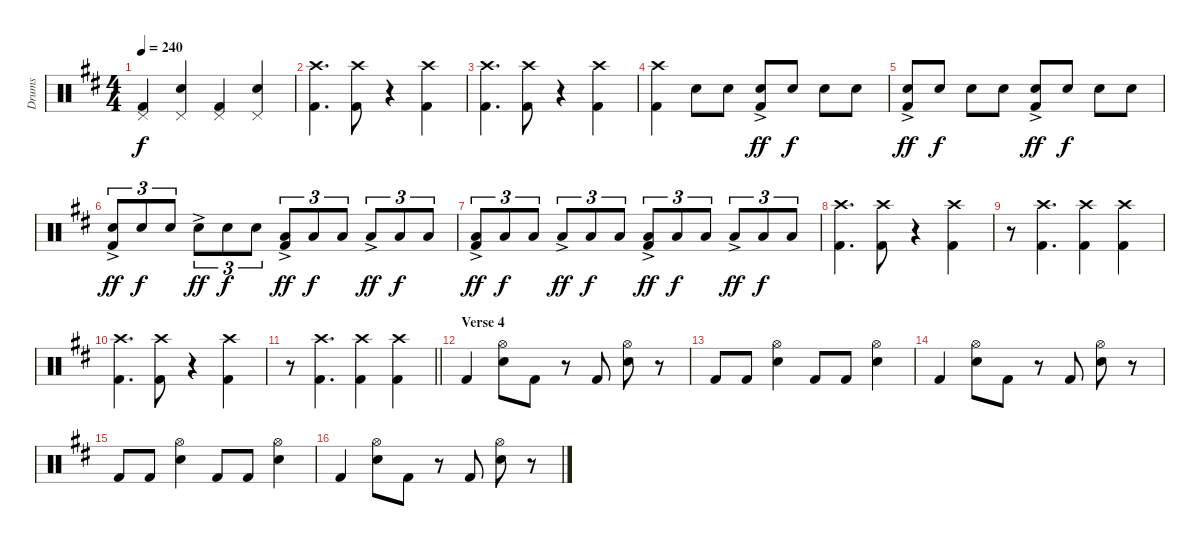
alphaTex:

\track ("Drums" "Drums") {instrument percussion}
\staff {score}
\articulation defaults
\ts (4 4)
\tempo 240
\clef neutral
\ks d
("Pedal Hi-Hat (hit)" "Kick (hit) 2").4{dy f} ("Pedal Hi-Hat (hit)" "Electric Snare (hit)").4 ("Pedal Hi-Hat (hit)" "Kick (hit) 2").4 ("Pedal Hi-Hat (hit)" "Electric Snare (hit)").4 |
("Crash high (hit)" "Kick (hit) 2").4{d} ("Crash high (hit)" "Kick (hit) 2").8 r.4 ("Crash high (hit)" "Kick (hit) 2").4 |
("Crash high (hit)" "Kick (hit) 2").4{d} ("Crash high (hit)" "Kick (hit) 2").8 r.4 ("Crash high (hit)" "Kick (hit) 2").4 |
("Crash high (hit)" "Kick (hit) 2").4 "Electric Snare (hit)".8 "Electric Snare (hit)".8 ("Electric Snare (hit)"{ac} "Kick (hit) 2").8{dy ff} "Electric Snare (hit)".8{dy f} "Electric Snare (hit)".8 "Electric Snare (hit)".8 |
("Electric Snare (hit)"{ac} "Kick (hit) 2").8{dy ff} "Electric Snare (hit)".8{dy f} "Electric Snare (hit)".8 "Electric Snare (hit)".8 ("Electric Snare (hit)"{ac} "Kick (hit) 2").8{dy ff} "Electric Snare (hit)".8{dy f} "Electric Snare (hit)".8 "Electric Snare (hit)".8 |
("Electric Snare (hit)"{ac} "Kick (hit) 2").8{tu (3 2) dy ff} "Electric Snare (hit)".8{tu (3 2) dy f} "Electric Snare (hit)".8{tu (3 2)} "Electric Snare (hit)"{ac}.8{tu (3 2) dy ff} "Electric Snare (hit)".8{tu (3 2) dy f} "Electric Snare (hit)".8{tu (3 2)} ("Low Tom (hit)"{ac} "Kick (hit) 2").8{tu (3 2) dy ff} "Low Tom (hit)".8{tu (3 2) dy f} "Low Tom (hit)".8{tu (3 2)} "Low Tom (hit)"{ac}.8{tu (3 2) dy ff} "Low Tom (hit)".8{tu (3 2) dy f} "Low Tom (hit)".8{tu (3 2)} |
("Low Tom (hit)"{ac} "Kick (hit) 2").8{tu (3 2) dy ff} "Low Tom (hit)".8{tu (3 2) dy f} "Low Tom (hit)".8{tu (3 2)} "Low Tom (hit)"{ac}.8{tu (3 2) dy ff} "Low Tom (hit)".8{tu (3 2) dy f} "Low Tom (hit)".8{tu (3 2)} ("Low Tom (hit)"{ac} "Kick (hit) 2").8{tu (3 2) dy ff} "Low Tom (hit)".8{tu (3 2) dy f} "Low Tom (hit)".8{tu (3 2)} "Low Tom (hit)"{ac}.8{tu (3 2) dy ff} "Low Tom (hit)".8{tu (3 2) dy f} "Low Tom (hit)".8{tu (3 2)} |
("Crash high (hit)" "Kick (hit) 2").4{d} ("Crash high (hit)" "Kick (hit) 2").8 r.4 ("Crash high (hit)" "Kick (hit) 2").4 |
r.8 ("Crash high (hit)" "Kick (hit) 2").4{d} ("Crash high (hit)" "Kick (hit) 2").4 ("Crash high (hit)" "Kick (hit) 2").4 |
("Crash high (hit)" "Kick (hit) 2").4{d} ("Crash high (hit)" "Kick (hit) 2").8 r.4 ("Crash high (hit)" "Kick (hit) 2").4 |
\barLineRight lightlight
r.8 ("Crash high (hit)" "Kick (hit) 2").4{d} ("Crash high (hit)" "Kick (hit) 2").4 ("Crash high (hit)" "Kick (hit) 2").4 |
\section ("" "Verse 4")
"Kick (hit) 2".4 ("Hi-Hat (open)" "Electric Snare (hit)").8 "Kick (hit) 2".8 r.8 "Kick (hit) 2".8 ("Hi-Hat (open)" "Electric Snare (hit)").8 r.8 |
"Kick (hit) 2".8 "Kick (hit) 2".8 ("Hi-Hat (open)" "Electric Snare (hit)").4 "Kick (hit) 2".8 "Kick (hit) 2".8 ("Hi-Hat (open)" "Electric Snare (hit)").4 |
"Kick (hit) 2".4 ("Hi-Hat (open)" "Electric Snare (hit)").8 "Kick (hit) 2".8 r.8 "Kick (hit) 2".8 ("Hi-Hat (open)" "Electric Snare (hit)").8 r.8 |
"Kick (hit) 2".8 "Kick (hit) 2".8 ("Hi-Hat (open)" "Electric Snare (hit)").4 "Kick (hit) 2".8 "Kick (hit) 2".8 ("Hi-Hat (open)" "Electric Snare (hit)").4 |
"Kick (hit) 2".4 ("Hi-Hat (open)" "Electric Snare (hit)").8 "Kick (hit) 2".8 r.8 "Kick (hit) 2".8 ("Hi-Hat (open)" "Electric Snare (hit)").8 r.8
